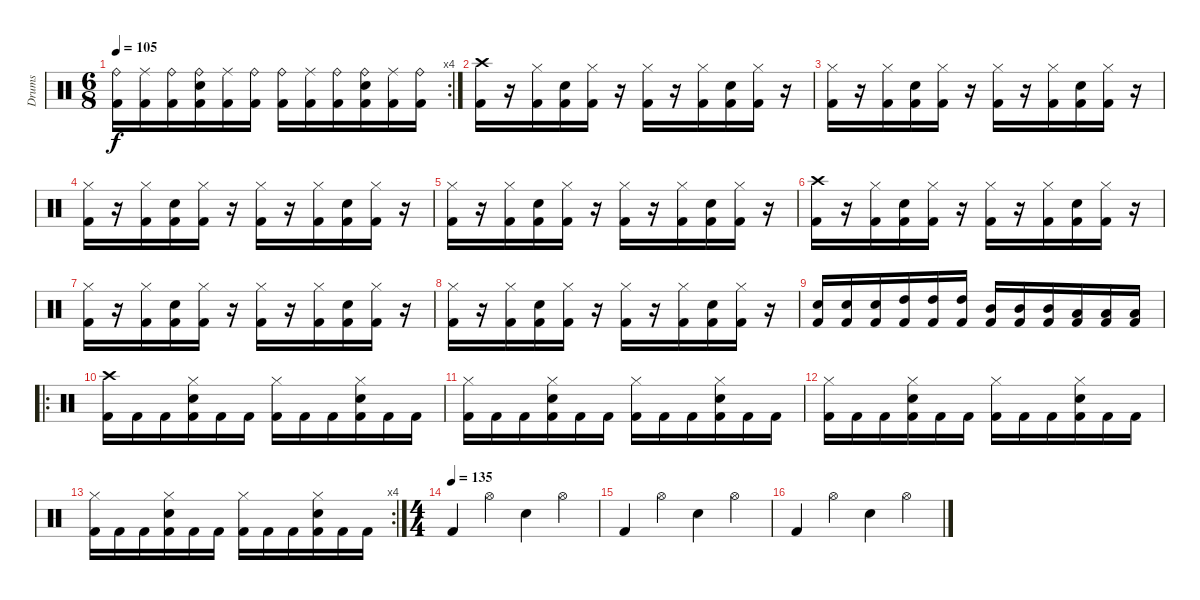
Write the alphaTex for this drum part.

\track ("Drums" "Drums") {instrument percussion}
\staff {score}
\articulation defaults
\rc 4
\ts (6 8)
\tempo 105
\clef neutral
\ks c
("Ride (bell)" "Kick (hit) 2").16{dy f} ("Ride (middle)" "Kick (hit) 2").16 ("Ride (bell)" "Kick (hit) 2").16 ("Ride (bell)" "Snare (hit) 2" "Kick (hit) 2").16 ("Ride (middle)" "Kick (hit) 2").16 ("Ride (bell)" "Kick (hit) 2").16 ("Ride (bell)" "Kick (hit) 2").16 ("Ride (middle)" "Kick (hit) 2").16 ("Ride (bell)" "Kick (hit) 2").16 ("Ride (bell)" "Snare (hit) 2" "Kick (hit) 2").16 ("Ride (middle)" "Kick (hit) 2").16 ("Ride (bell)" "Kick (hit) 2").16 |
("Crash high (hit)" "Kick (hit) 2").16 r.16 ("Hi-Hat (closed)" "Kick (hit) 2").16 ("Snare (hit) 2" "Kick (hit) 2").16 ("Hi-Hat (closed)" "Kick (hit) 2").16 r.16 ("Hi-Hat (closed)" "Kick (hit) 2").16 r.16 ("Hi-Hat (closed)" "Kick (hit) 2").16 ("Snare (hit) 2" "Kick (hit) 2").16 ("Hi-Hat (closed)" "Kick (hit) 2").16 r.16 |
("Hi-Hat (closed)" "Kick (hit) 2").16 r.16 ("Hi-Hat (closed)" "Kick (hit) 2").16 ("Snare (hit) 2" "Kick (hit) 2").16 ("Hi-Hat (closed)" "Kick (hit) 2").16 r.16 ("Hi-Hat (closed)" "Kick (hit) 2").16 r.16 ("Hi-Hat (closed)" "Kick (hit) 2").16 ("Snare (hit) 2" "Kick (hit) 2").16 ("Hi-Hat (closed)" "Kick (hit) 2").16 r.16 |
("Hi-Hat (closed)" "Kick (hit) 2").16 r.16 ("Hi-Hat (closed)" "Kick (hit) 2").16 ("Snare (hit) 2" "Kick (hit) 2").16 ("Hi-Hat (closed)" "Kick (hit) 2").16 r.16 ("Hi-Hat (closed)" "Kick (hit) 2").16 r.16 ("Hi-Hat (closed)" "Kick (hit) 2").16 ("Snare (hit) 2" "Kick (hit) 2").16 ("Hi-Hat (closed)" "Kick (hit) 2").16 r.16 |
("Hi-Hat (closed)" "Kick (hit) 2").16 r.16 ("Hi-Hat (closed)" "Kick (hit) 2").16 ("Snare (hit) 2" "Kick (hit) 2").16 ("Hi-Hat (closed)" "Kick (hit) 2").16 r.16 ("Hi-Hat (closed)" "Kick (hit) 2").16 r.16 ("Hi-Hat (closed)" "Kick (hit) 2").16 ("Snare (hit) 2" "Kick (hit) 2").16 ("Hi-Hat (closed)" "Kick (hit) 2").16 r.16 |
("Crash high (hit)" "Kick (hit) 2").16 r.16 ("Hi-Hat (closed)" "Kick (hit) 2").16 ("Snare (hit) 2" "Kick (hit) 2").16 ("Hi-Hat (closed)" "Kick (hit) 2").16 r.16 ("Hi-Hat (closed)" "Kick (hit) 2").16 r.16 ("Hi-Hat (closed)" "Kick (hit) 2").16 ("Snare (hit) 2" "Kick (hit) 2").16 ("Hi-Hat (closed)" "Kick (hit) 2").16 r.16 |
("Hi-Hat (closed)" "Kick (hit) 2").16 r.16 ("Hi-Hat (closed)" "Kick (hit) 2").16 ("Snare (hit) 2" "Kick (hit) 2").16 ("Hi-Hat (closed)" "Kick (hit) 2").16 r.16 ("Hi-Hat (closed)" "Kick (hit) 2").16 r.16 ("Hi-Hat (closed)" "Kick (hit) 2").16 ("Snare (hit) 2" "Kick (hit) 2").16 ("Hi-Hat (closed)" "Kick (hit) 2").16 r.16 |
("Hi-Hat (closed)" "Kick (hit) 2").16 r.16 ("Hi-Hat (closed)" "Kick (hit) 2").16 ("Snare (hit) 2" "Kick (hit) 2").16 ("Hi-Hat (closed)" "Kick (hit) 2").16 r.16 ("Hi-Hat (closed)" "Kick (hit) 2").16 r.16 ("Hi-Hat (closed)" "Kick (hit) 2").16 ("Snare (hit) 2" "Kick (hit) 2").16 ("Hi-Hat (closed)" "Kick (hit) 2").16 r.16 |
("Snare (hit) 2" "Kick (hit) 2").16 ("Snare (hit) 2" "Kick (hit) 2").16 ("Snare (hit) 2" "Kick (hit) 2").16 ("High Tom (hit)" "Kick (hit) 2").16 ("High Tom (hit)" "Kick (hit) 2").16 ("High Tom (hit)" "Kick (hit) 2").16 ("Mid Tom (hit)" "Kick (hit) 2").16 ("Mid Tom (hit)" "Kick (hit) 2").16 ("Mid Tom (hit)" "Kick (hit) 2").16 ("Low Tom (hit)" "Kick (hit) 2").16 ("Low Tom (hit)" "Kick (hit) 2").16 ("Low Tom (hit)" "Kick (hit) 2").16 |
\ro
("Crash high (hit)" "Kick (hit) 2").16 "Kick (hit) 2".16 "Kick (hit) 2".16 ("Hi-Hat (closed)" "Snare (hit) 2" "Kick (hit) 2").16 "Kick (hit) 2".16 "Kick (hit) 2".16 ("Hi-Hat (closed)" "Kick (hit) 2").16 "Kick (hit) 2".16 "Kick (hit) 2".16 ("Hi-Hat (closed)" "Snare (hit) 2" "Kick (hit) 2").16 "Kick (hit) 2".16 "Kick (hit) 2".16 |
("Hi-Hat (closed)" "Kick (hit) 2").16 "Kick (hit) 2".16 "Kick (hit) 2".16 ("Hi-Hat (closed)" "Snare (hit) 2" "Kick (hit) 2").16 "Kick (hit) 2".16 "Kick (hit) 2".16 ("Hi-Hat (closed)" "Kick (hit) 2").16 "Kick (hit) 2".16 "Kick (hit) 2".16 ("Hi-Hat (closed)" "Snare (hit) 2" "Kick (hit) 2").16 "Kick (hit) 2".16 "Kick (hit) 2".16 |
("Hi-Hat (closed)" "Kick (hit) 2").16 "Kick (hit) 2".16 "Kick (hit) 2".16 ("Hi-Hat (closed)" "Snare (hit) 2" "Kick (hit) 2").16 "Kick (hit) 2".16 "Kick (hit) 2".16 ("Hi-Hat (closed)" "Kick (hit) 2").16 "Kick (hit) 2".16 "Kick (hit) 2".16 ("Hi-Hat (closed)" "Snare (hit) 2" "Kick (hit) 2").16 "Kick (hit) 2".16 "Kick (hit) 2".16 |
\rc 4
("Hi-Hat (closed)" "Kick (hit) 2").16 "Kick (hit) 2".16 "Kick (hit) 2".16 ("Hi-Hat (closed)" "Snare (hit) 2" "Kick (hit) 2").16 "Kick (hit) 2".16 "Kick (hit) 2".16 ("Hi-Hat (closed)" "Kick (hit) 2").16 "Kick (hit) 2".16 "Kick (hit) 2".16 ("Hi-Hat (closed)" "Snare (hit) 2" "Kick (hit) 2").16 "Kick (hit) 2".16 "Kick (hit) 2".16 |
\ts (4 4)
\tempo (135)
"Kick (hit) 2".4 "Hi-Hat (open)".4 "Snare (hit) 2".4 "Hi-Hat (open)".4 |
"Kick (hit) 2".4 "Hi-Hat (open)".4 "Snare (hit) 2".4 "Hi-Hat (open)".4 |
"Kick (hit) 2".4 "Hi-Hat (open)".4 "Snare (hit) 2".4 "Hi-Hat (open)".4
